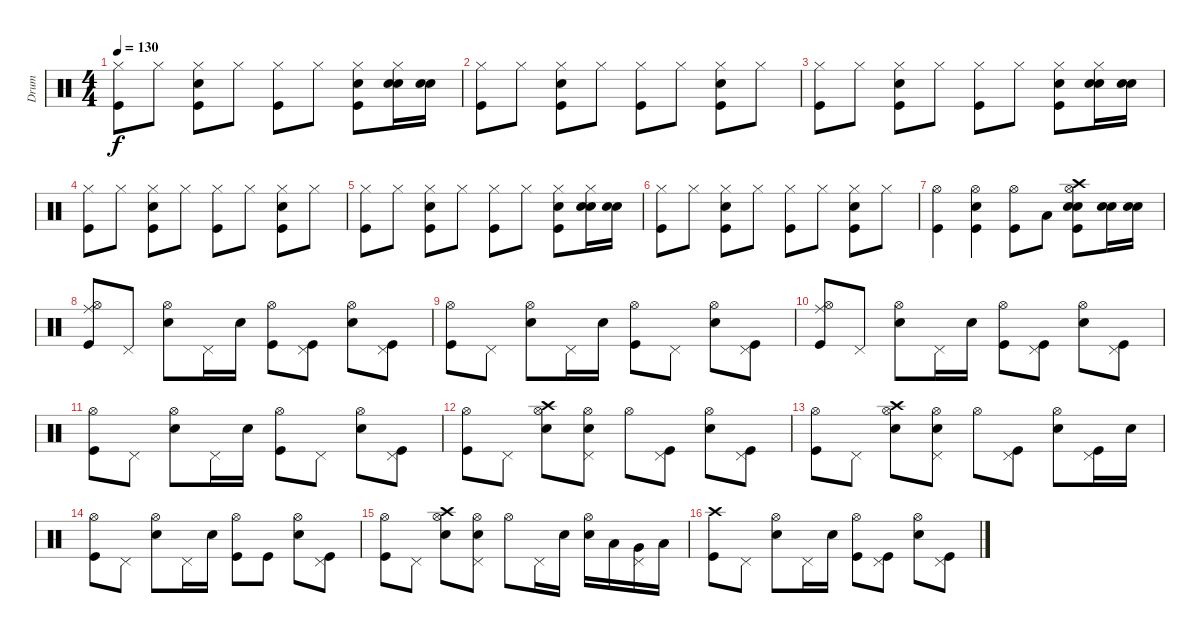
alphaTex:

\track ("Drum" "Drum") {instrument percussion}
\staff {score}
\articulation defaults
\ts (4 4)
\tempo 130
\clef neutral
\ks c
("Kick (hit)" "Hi-Hat (closed)").8{dy f} "Hi-Hat (closed)".8 ("Kick (hit)" "Snare (hit) 2" "Hi-Hat (closed)").8 "Hi-Hat (closed)".8 ("Hi-Hat (closed)" "Kick (hit)").8 "Hi-Hat (closed)".8 ("Kick (hit)" "Snare (hit) 2" "Hi-Hat (closed)").8 ("Snare (hit) 2" "Snare (hit) 2" "Hi-Hat (closed)").16 ("Snare (hit) 2" "Snare (hit) 2").16 |
("Kick (hit)" "Hi-Hat (closed)").8 "Hi-Hat (closed)".8 ("Kick (hit)" "Snare (hit) 2" "Hi-Hat (closed)").8 "Hi-Hat (closed)".8 ("Hi-Hat (closed)" "Kick (hit)").8 "Hi-Hat (closed)".8 ("Kick (hit)" "Snare (hit) 2" "Hi-Hat (closed)").8 "Hi-Hat (closed)".8 |
("Kick (hit)" "Hi-Hat (closed)").8 "Hi-Hat (closed)".8 ("Kick (hit)" "Snare (hit) 2" "Hi-Hat (closed)").8 "Hi-Hat (closed)".8 ("Hi-Hat (closed)" "Kick (hit)").8 "Hi-Hat (closed)".8 ("Kick (hit)" "Snare (hit) 2" "Hi-Hat (closed)").8 ("Snare (hit) 2" "Snare (hit) 2" "Hi-Hat (closed)").16 ("Snare (hit) 2" "Snare (hit) 2").16 |
("Kick (hit)" "Hi-Hat (closed)").8 "Hi-Hat (closed)".8 ("Kick (hit)" "Snare (hit) 2" "Hi-Hat (closed)").8 "Hi-Hat (closed)".8 ("Hi-Hat (closed)" "Kick (hit)").8 "Hi-Hat (closed)".8 ("Kick (hit)" "Snare (hit) 2" "Hi-Hat (closed)").8 "Hi-Hat (closed)".8 |
("Kick (hit)" "Hi-Hat (closed)").8 "Hi-Hat (closed)".8 ("Kick (hit)" "Snare (hit) 2" "Hi-Hat (closed)").8 "Hi-Hat (closed)".8 ("Hi-Hat (closed)" "Kick (hit)").8 "Hi-Hat (closed)".8 ("Kick (hit)" "Snare (hit) 2" "Hi-Hat (closed)").8 ("Snare (hit) 2" "Snare (hit) 2" "Hi-Hat (closed)").16 ("Snare (hit) 2" "Snare (hit) 2").16 |
("Kick (hit)" "Hi-Hat (closed)").8 "Hi-Hat (closed)".8 ("Kick (hit)" "Snare (hit) 2" "Hi-Hat (closed)").8 "Hi-Hat (closed)".8 ("Hi-Hat (closed)" "Kick (hit)").8 "Hi-Hat (closed)".8 ("Kick (hit)" "Snare (hit) 2" "Hi-Hat (closed)").8 "Hi-Hat (closed)".8 |
("Kick (hit)" "Hi-Hat (open)").4 ("Kick (hit)" "Snare (hit) 2" "Hi-Hat (open)").4 ("Kick (hit)" "Hi-Hat (open)").8 "Low Tom (hit)".8 ("Kick (hit)" "Snare (hit) 2" "Hi-Hat (open)" "Crash high (hit)" "Snare (hit) 2").8 ("Snare (hit) 2" "Snare (hit) 2").16 ("Snare (hit) 2" "Snare (hit) 2").16 |
("Kick (hit)" "Hi-Hat (open)" "Ride (middle)").8 "Pedal Hi-Hat (hit)".8 ("Snare (hit) 2" "Hi-Hat (open)").8 "Pedal Hi-Hat (hit)".16 "Snare (hit) 2".16 ("Kick (hit)" "Hi-Hat (open)").8 ("Kick (hit)" "Pedal Hi-Hat (hit)").8 ("Snare (hit) 2" "Hi-Hat (open)").8 ("Kick (hit)" "Pedal Hi-Hat (hit)").8 |
("Kick (hit)" "Hi-Hat (open)").8 "Pedal Hi-Hat (hit)".8 ("Snare (hit) 2" "Hi-Hat (open)").8 "Pedal Hi-Hat (hit)".16 "Snare (hit) 2".16 ("Kick (hit)" "Hi-Hat (open)").8 "Pedal Hi-Hat (hit)".8 ("Snare (hit) 2" "Hi-Hat (open)").8 ("Kick (hit)" "Pedal Hi-Hat (hit)").8 |
("Kick (hit)" "Hi-Hat (open)" "Ride (middle)").8 "Pedal Hi-Hat (hit)".8 ("Snare (hit) 2" "Hi-Hat (open)").8 "Pedal Hi-Hat (hit)".16 "Snare (hit) 2".16 ("Kick (hit)" "Hi-Hat (open)").8 ("Kick (hit)" "Pedal Hi-Hat (hit)").8 ("Snare (hit) 2" "Hi-Hat (open)").8 ("Kick (hit)" "Pedal Hi-Hat (hit)").8 |
("Kick (hit)" "Hi-Hat (open)").8 "Pedal Hi-Hat (hit)".8 ("Snare (hit) 2" "Hi-Hat (open)").8 "Pedal Hi-Hat (hit)".16 "Snare (hit) 2".16 ("Kick (hit)" "Hi-Hat (open)").8 "Pedal Hi-Hat (hit)".8 ("Snare (hit) 2" "Hi-Hat (open)").8 ("Kick (hit)" "Pedal Hi-Hat (hit)").8 |
("Kick (hit)" "Hi-Hat (open)").8 "Pedal Hi-Hat (hit)".8 ("Snare (hit) 2" "Hi-Hat (open)" "Crash high (hit)").8 ("Snare (hit) 2" "Hi-Hat (open)" "Pedal Hi-Hat (hit)").8 "Hi-Hat (open)".8 ("Kick (hit)" "Pedal Hi-Hat (hit)").8 ("Hi-Hat (open)" "Snare (hit) 2").8 ("Kick (hit)" "Pedal Hi-Hat (hit)").8 |
("Kick (hit)" "Hi-Hat (open)").8 "Pedal Hi-Hat (hit)".8 ("Snare (hit) 2" "Hi-Hat (open)" "Crash high (hit)").8 ("Snare (hit) 2" "Hi-Hat (open)" "Pedal Hi-Hat (hit)").8 "Hi-Hat (open)".8 ("Kick (hit)" "Pedal Hi-Hat (hit)").8 ("Hi-Hat (open)" "Snare (hit) 2").8 ("Kick (hit)" "Pedal Hi-Hat (hit)").16 "Snare (hit) 2".16 |
("Kick (hit)" "Hi-Hat (open)").8 "Pedal Hi-Hat (hit)".8 ("Snare (hit) 2" "Hi-Hat (open)").8 "Pedal Hi-Hat (hit)".16 "Snare (hit) 2".16 ("Kick (hit)" "Hi-Hat (open)").8 "Kick (hit)".8 ("Snare (hit) 2" "Hi-Hat (open)").8 ("Kick (hit)" "Pedal Hi-Hat (hit)").8 |
("Kick (hit)" "Hi-Hat (open)").8 "Pedal Hi-Hat (hit)".8 ("Snare (hit) 2" "Hi-Hat (open)" "Crash high (hit)").8 ("Snare (hit) 2" "Hi-Hat (open)" "Pedal Hi-Hat (hit)").8 "Hi-Hat (open)".8 "Pedal Hi-Hat (hit)".16 "Snare (hit) 2".16 ("Hi-Hat (open)" "Snare (hit) 2").16 "Low Tom (hit)".16 ("Pedal Hi-Hat (hit)" "Very Low Tom (hit)").16 "Low Floor Tom (hit)".16 |
("Kick (hit)" "Crash high (hit)").8 "Pedal Hi-Hat (hit)".8 ("Snare (hit) 2" "Hi-Hat (open)").8 "Pedal Hi-Hat (hit)".16 "Snare (hit) 2".16 ("Kick (hit)" "Hi-Hat (open)").8 ("Kick (hit)" "Pedal Hi-Hat (hit)").8 ("Snare (hit) 2" "Hi-Hat (open)").8 ("Kick (hit)" "Pedal Hi-Hat (hit)").8
